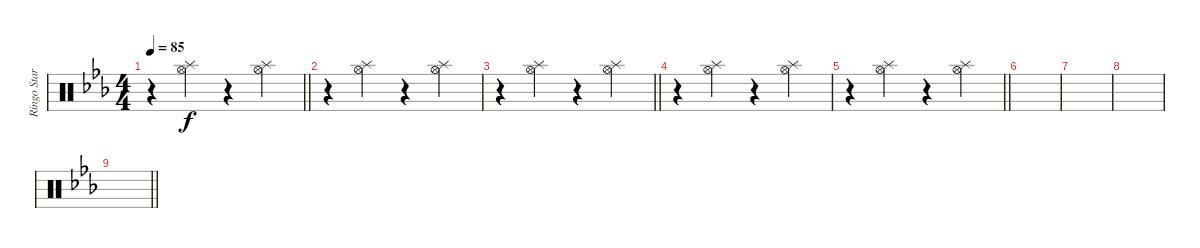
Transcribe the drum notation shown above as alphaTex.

\track ("Ringo Star" "Ringo Star") {instrument percussion}
\staff {score}
\articulation defaults
\ts (4 4)
\tempo 85
\clef neutral
\barLineRight lightlight
\ks cminor
r.4{dy f} ("Hi-Hat (open)" "Splash (hit)").4 r.4 ("Hi-Hat (open)" "Splash (hit)").4 |
r.4 ("Hi-Hat (open)" "Splash (hit)").4 r.4 ("Hi-Hat (open)" "Splash (hit)").4 |
\barLineRight lightlight
r.4 ("Hi-Hat (open)" "Splash (hit)").4 r.4 ("Hi-Hat (open)" "Splash (hit)").4 |
r.4 ("Hi-Hat (open)" "Splash (hit)").4 r.4 ("Hi-Hat (open)" "Splash (hit)").4 |
\barLineRight lightlight
r.4 ("Hi-Hat (open)" "Splash (hit)").4 r.4 ("Hi-Hat (open)" "Splash (hit)").4 |
|
|
|
\barLineRight lightlight
